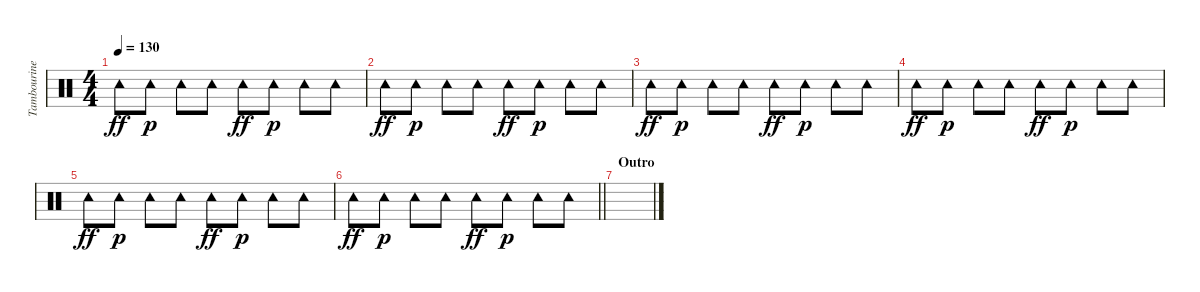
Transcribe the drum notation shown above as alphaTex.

\track ("Tambourine" "Tambourine") {instrument percussion}
\staff {score}
\articulation defaults
\ts (4 4)
\tempo 130
\clef neutral
\ks c "Tambourine (hit)".8{dy ff} "Tambourine (hit)".8{dy p} "Tambourine (hit)".8 "Tambourine (hit)".8 "Tambourine (hit)".8{dy ff} "Tambourine (hit)".8{dy p} "Tambourine (hit)".8 "Tambourine (hit)".8
|
"Tambourine (hit)".8{dy ff} "Tambourine (hit)".8{dy p} "Tambourine (hit)".8 "Tambourine (hit)".8 "Tambourine (hit)".8{dy ff} "Tambourine (hit)".8{dy p} "Tambourine (hit)".8 "Tambourine (hit)".8 |
"Tambourine (hit)".8{dy ff} "Tambourine (hit)".8{dy p} "Tambourine (hit)".8 "Tambourine (hit)".8 "Tambourine (hit)".8{dy ff} "Tambourine (hit)".8{dy p} "Tambourine (hit)".8 "Tambourine (hit)".8 |
"Tambourine (hit)".8{dy ff} "Tambourine (hit)".8{dy p} "Tambourine (hit)".8 "Tambourine (hit)".8 "Tambourine (hit)".8{dy ff} "Tambourine (hit)".8{dy p} "Tambourine (hit)".8 "Tambourine (hit)".8 |
"Tambourine (hit)".8{dy ff} "Tambourine (hit)".8{dy p} "Tambourine (hit)".8 "Tambourine (hit)".8 "Tambourine (hit)".8{dy ff} "Tambourine (hit)".8{dy p} "Tambourine (hit)".8 "Tambourine (hit)".8 |
\barLineRight lightlight "Tambourine (hit)".8{dy ff} "Tambourine (hit)".8{dy p} "Tambourine (hit)".8 "Tambourine (hit)".8 "Tambourine (hit)".8{dy ff} "Tambourine (hit)".8{dy p} "Tambourine (hit)".8 "Tambourine (hit)".8
|
\section ("" "Outro")
